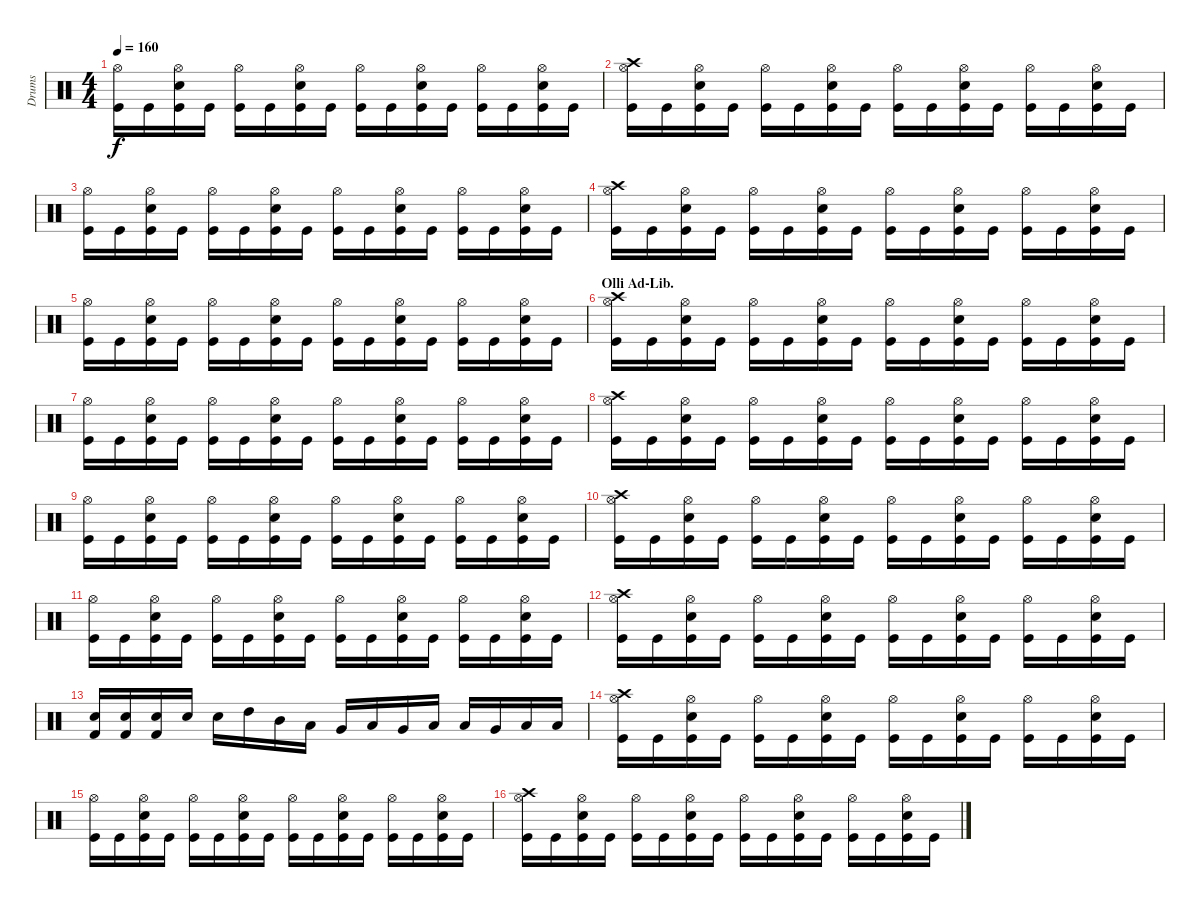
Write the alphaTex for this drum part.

\track ("Drums" "Drums") {instrument percussion}
\staff {score}
\articulation defaults
\ts (4 4)
\tempo 160
\clef neutral
\ks c
("Hi-Hat (open)" "Kick (hit)").16{dy f} "Kick (hit)".16 ("Hi-Hat (open)" "Electric Snare (hit)" "Kick (hit)").16 "Kick (hit)".16 ("Hi-Hat (open)" "Kick (hit)").16 "Kick (hit)".16 ("Hi-Hat (open)" "Electric Snare (hit)" "Kick (hit)").16 "Kick (hit)".16 ("Hi-Hat (open)" "Kick (hit)").16 "Kick (hit)".16 ("Hi-Hat (open)" "Electric Snare (hit)" "Kick (hit)").16 "Kick (hit)".16 ("Hi-Hat (open)" "Kick (hit)").16 "Kick (hit)".16 ("Hi-Hat (open)" "Electric Snare (hit)" "Kick (hit)").16 "Kick (hit)".16 |
("Crash high (hit)" "Hi-Hat (open)" "Kick (hit)").16 "Kick (hit)".16 ("Hi-Hat (open)" "Electric Snare (hit)" "Kick (hit)").16 "Kick (hit)".16 ("Hi-Hat (open)" "Kick (hit)").16 "Kick (hit)".16 ("Hi-Hat (open)" "Electric Snare (hit)" "Kick (hit)").16 "Kick (hit)".16 ("Hi-Hat (open)" "Kick (hit)").16 "Kick (hit)".16 ("Hi-Hat (open)" "Electric Snare (hit)" "Kick (hit)").16 "Kick (hit)".16 ("Hi-Hat (open)" "Kick (hit)").16 "Kick (hit)".16 ("Hi-Hat (open)" "Electric Snare (hit)" "Kick (hit)").16 "Kick (hit)".16 |
("Hi-Hat (open)" "Kick (hit)").16 "Kick (hit)".16 ("Hi-Hat (open)" "Electric Snare (hit)" "Kick (hit)").16 "Kick (hit)".16 ("Hi-Hat (open)" "Kick (hit)").16 "Kick (hit)".16 ("Hi-Hat (open)" "Electric Snare (hit)" "Kick (hit)").16 "Kick (hit)".16 ("Hi-Hat (open)" "Kick (hit)").16 "Kick (hit)".16 ("Hi-Hat (open)" "Electric Snare (hit)" "Kick (hit)").16 "Kick (hit)".16 ("Hi-Hat (open)" "Kick (hit)").16 "Kick (hit)".16 ("Hi-Hat (open)" "Electric Snare (hit)" "Kick (hit)").16 "Kick (hit)".16 |
("Crash high (hit)" "Hi-Hat (open)" "Kick (hit)").16 "Kick (hit)".16 ("Hi-Hat (open)" "Electric Snare (hit)" "Kick (hit)").16 "Kick (hit)".16 ("Hi-Hat (open)" "Kick (hit)").16 "Kick (hit)".16 ("Hi-Hat (open)" "Electric Snare (hit)" "Kick (hit)").16 "Kick (hit)".16 ("Hi-Hat (open)" "Kick (hit)").16 "Kick (hit)".16 ("Hi-Hat (open)" "Electric Snare (hit)" "Kick (hit)").16 "Kick (hit)".16 ("Hi-Hat (open)" "Kick (hit)").16 "Kick (hit)".16 ("Hi-Hat (open)" "Electric Snare (hit)" "Kick (hit)").16 "Kick (hit)".16 |
("Hi-Hat (open)" "Kick (hit)").16 "Kick (hit)".16 ("Hi-Hat (open)" "Electric Snare (hit)" "Kick (hit)").16 "Kick (hit)".16 ("Hi-Hat (open)" "Kick (hit)").16 "Kick (hit)".16 ("Hi-Hat (open)" "Electric Snare (hit)" "Kick (hit)").16 "Kick (hit)".16 ("Hi-Hat (open)" "Kick (hit)").16 "Kick (hit)".16 ("Hi-Hat (open)" "Electric Snare (hit)" "Kick (hit)").16 "Kick (hit)".16 ("Hi-Hat (open)" "Kick (hit)").16 "Kick (hit)".16 ("Hi-Hat (open)" "Electric Snare (hit)" "Kick (hit)").16 "Kick (hit)".16 |
\section ("" "Olli Ad-Lib.")
("Crash high (hit)" "Hi-Hat (open)" "Kick (hit)").16 "Kick (hit)".16 ("Hi-Hat (open)" "Electric Snare (hit)" "Kick (hit)").16 "Kick (hit)".16 ("Hi-Hat (open)" "Kick (hit)").16 "Kick (hit)".16 ("Hi-Hat (open)" "Electric Snare (hit)" "Kick (hit)").16 "Kick (hit)".16 ("Hi-Hat (open)" "Kick (hit)").16 "Kick (hit)".16 ("Hi-Hat (open)" "Electric Snare (hit)" "Kick (hit)").16 "Kick (hit)".16 ("Hi-Hat (open)" "Kick (hit)").16 "Kick (hit)".16 ("Hi-Hat (open)" "Electric Snare (hit)" "Kick (hit)").16 "Kick (hit)".16 |
("Hi-Hat (open)" "Kick (hit)").16 "Kick (hit)".16 ("Hi-Hat (open)" "Electric Snare (hit)" "Kick (hit)").16 "Kick (hit)".16 ("Hi-Hat (open)" "Kick (hit)").16 "Kick (hit)".16 ("Hi-Hat (open)" "Electric Snare (hit)" "Kick (hit)").16 "Kick (hit)".16 ("Hi-Hat (open)" "Kick (hit)").16 "Kick (hit)".16 ("Hi-Hat (open)" "Electric Snare (hit)" "Kick (hit)").16 "Kick (hit)".16 ("Hi-Hat (open)" "Kick (hit)").16 "Kick (hit)".16 ("Hi-Hat (open)" "Electric Snare (hit)" "Kick (hit)").16 "Kick (hit)".16 |
("Crash high (hit)" "Hi-Hat (open)" "Kick (hit)").16 "Kick (hit)".16 ("Hi-Hat (open)" "Electric Snare (hit)" "Kick (hit)").16 "Kick (hit)".16 ("Hi-Hat (open)" "Kick (hit)").16 "Kick (hit)".16 ("Hi-Hat (open)" "Electric Snare (hit)" "Kick (hit)").16 "Kick (hit)".16 ("Hi-Hat (open)" "Kick (hit)").16 "Kick (hit)".16 ("Hi-Hat (open)" "Electric Snare (hit)" "Kick (hit)").16 "Kick (hit)".16 ("Hi-Hat (open)" "Kick (hit)").16 "Kick (hit)".16 ("Hi-Hat (open)" "Electric Snare (hit)" "Kick (hit)").16 "Kick (hit)".16 |
("Hi-Hat (open)" "Kick (hit)").16 "Kick (hit)".16 ("Hi-Hat (open)" "Electric Snare (hit)" "Kick (hit)").16 "Kick (hit)".16 ("Hi-Hat (open)" "Kick (hit)").16 "Kick (hit)".16 ("Hi-Hat (open)" "Electric Snare (hit)" "Kick (hit)").16 "Kick (hit)".16 ("Hi-Hat (open)" "Kick (hit)").16 "Kick (hit)".16 ("Hi-Hat (open)" "Electric Snare (hit)" "Kick (hit)").16 "Kick (hit)".16 ("Hi-Hat (open)" "Kick (hit)").16 "Kick (hit)".16 ("Hi-Hat (open)" "Electric Snare (hit)" "Kick (hit)").16 "Kick (hit)".16 |
("Crash high (hit)" "Hi-Hat (open)" "Kick (hit)").16 "Kick (hit)".16 ("Hi-Hat (open)" "Electric Snare (hit)" "Kick (hit)").16 "Kick (hit)".16 ("Hi-Hat (open)" "Kick (hit)").16 "Kick (hit)".16 ("Hi-Hat (open)" "Electric Snare (hit)" "Kick (hit)").16 "Kick (hit)".16 ("Hi-Hat (open)" "Kick (hit)").16 "Kick (hit)".16 ("Hi-Hat (open)" "Electric Snare (hit)" "Kick (hit)").16 "Kick (hit)".16 ("Hi-Hat (open)" "Kick (hit)").16 "Kick (hit)".16 ("Hi-Hat (open)" "Electric Snare (hit)" "Kick (hit)").16 "Kick (hit)".16 |
("Hi-Hat (open)" "Kick (hit)").16 "Kick (hit)".16 ("Hi-Hat (open)" "Electric Snare (hit)" "Kick (hit)").16 "Kick (hit)".16 ("Hi-Hat (open)" "Kick (hit)").16 "Kick (hit)".16 ("Hi-Hat (open)" "Electric Snare (hit)" "Kick (hit)").16 "Kick (hit)".16 ("Hi-Hat (open)" "Kick (hit)").16 "Kick (hit)".16 ("Hi-Hat (open)" "Electric Snare (hit)" "Kick (hit)").16 "Kick (hit)".16 ("Hi-Hat (open)" "Kick (hit)").16 "Kick (hit)".16 ("Hi-Hat (open)" "Electric Snare (hit)" "Kick (hit)").16 "Kick (hit)".16 |
("Crash high (hit)" "Hi-Hat (open)" "Kick (hit)").16 "Kick (hit)".16 ("Hi-Hat (open)" "Electric Snare (hit)" "Kick (hit)").16 "Kick (hit)".16 ("Hi-Hat (open)" "Kick (hit)").16 "Kick (hit)".16 ("Hi-Hat (open)" "Electric Snare (hit)" "Kick (hit)").16 "Kick (hit)".16 ("Hi-Hat (open)" "Kick (hit)").16 "Kick (hit)".16 ("Hi-Hat (open)" "Electric Snare (hit)" "Kick (hit)").16 "Kick (hit)".16 ("Hi-Hat (open)" "Kick (hit)").16 "Kick (hit)".16 ("Hi-Hat (open)" "Electric Snare (hit)" "Kick (hit)").16 "Kick (hit)".16 |
("Snare (hit) 2" "Kick (hit) 2").16 ("Electric Snare (hit)" "Kick (hit) 2").16 ("Electric Snare (hit)" "Kick (hit) 2").16 "Snare (hit) 2".16 "Snare (hit) 2".16 "High Tom (hit)".16 "Mid Tom (hit)".16 "Low Tom (hit)".16 "Very Low Tom (hit)".16 "Low Tom (hit)".16 "Very Low Tom (hit)".16 "Low Floor Tom (hit)".16 "Low Tom (hit)".16 "Very Low Tom (hit)".16 "Low Floor Tom (hit)".16 "Low Floor Tom (hit)".16 |
("Crash high (hit)" "Hi-Hat (open)" "Kick (hit)").16 "Kick (hit)".16 ("Hi-Hat (open)" "Electric Snare (hit)" "Kick (hit)").16 "Kick (hit)".16 ("Hi-Hat (open)" "Kick (hit)").16 "Kick (hit)".16 ("Hi-Hat (open)" "Electric Snare (hit)" "Kick (hit)").16 "Kick (hit)".16 ("Hi-Hat (open)" "Kick (hit)").16 "Kick (hit)".16 ("Hi-Hat (open)" "Electric Snare (hit)" "Kick (hit)").16 "Kick (hit)".16 ("Hi-Hat (open)" "Kick (hit)").16 "Kick (hit)".16 ("Hi-Hat (open)" "Electric Snare (hit)" "Kick (hit)").16 "Kick (hit)".16 |
("Hi-Hat (open)" "Kick (hit)").16 "Kick (hit)".16 ("Hi-Hat (open)" "Electric Snare (hit)" "Kick (hit)").16 "Kick (hit)".16 ("Hi-Hat (open)" "Kick (hit)").16 "Kick (hit)".16 ("Hi-Hat (open)" "Electric Snare (hit)" "Kick (hit)").16 "Kick (hit)".16 ("Hi-Hat (open)" "Kick (hit)").16 "Kick (hit)".16 ("Hi-Hat (open)" "Electric Snare (hit)" "Kick (hit)").16 "Kick (hit)".16 ("Hi-Hat (open)" "Kick (hit)").16 "Kick (hit)".16 ("Hi-Hat (open)" "Electric Snare (hit)" "Kick (hit)").16 "Kick (hit)".16 |
("Crash high (hit)" "Hi-Hat (open)" "Kick (hit)").16 "Kick (hit)".16 ("Hi-Hat (open)" "Electric Snare (hit)" "Kick (hit)").16 "Kick (hit)".16 ("Hi-Hat (open)" "Kick (hit)").16 "Kick (hit)".16 ("Hi-Hat (open)" "Electric Snare (hit)" "Kick (hit)").16 "Kick (hit)".16 ("Hi-Hat (open)" "Kick (hit)").16 "Kick (hit)".16 ("Hi-Hat (open)" "Electric Snare (hit)" "Kick (hit)").16 "Kick (hit)".16 ("Hi-Hat (open)" "Kick (hit)").16 "Kick (hit)".16 ("Hi-Hat (open)" "Electric Snare (hit)" "Kick (hit)").16 "Kick (hit)".16
